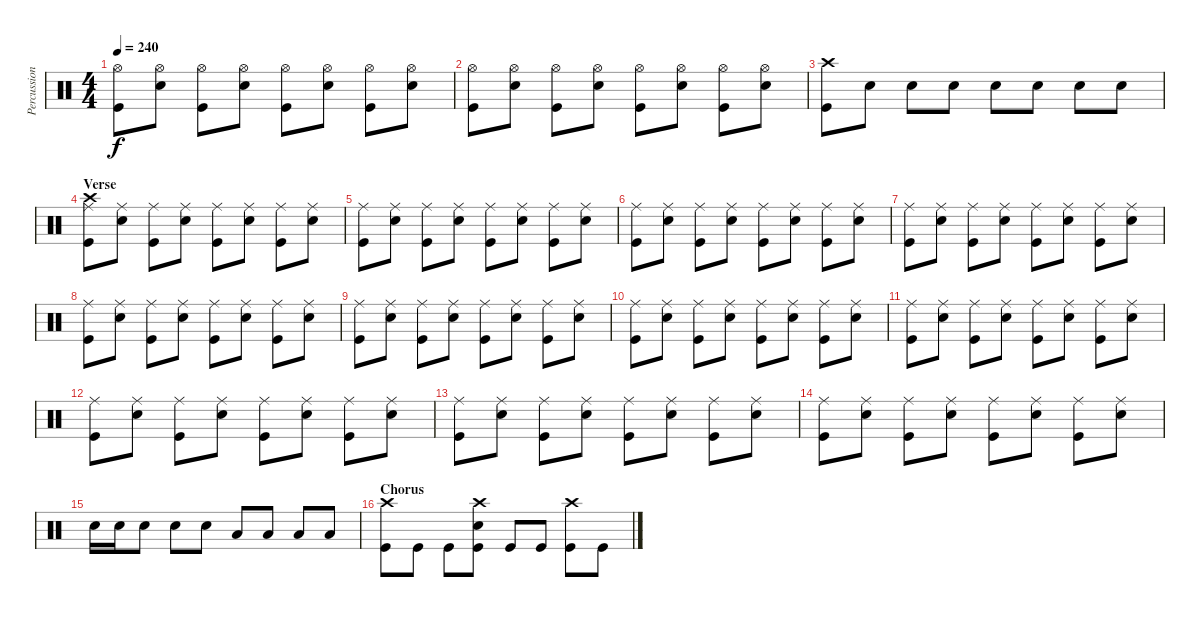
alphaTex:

\track ("Percussion" "Percussion") {instrument percussion}
\staff {score}
\articulation defaults
\ts (4 4)
\tempo 240
\clef neutral
\ks c
("Hi-Hat (open)" "Kick (hit)").8{dy f} ("Electric Snare (hit)" "Hi-Hat (open)").8 ("Hi-Hat (open)" "Kick (hit)").8 ("Electric Snare (hit)" "Hi-Hat (open)").8 ("Hi-Hat (open)" "Kick (hit)").8 ("Electric Snare (hit)" "Hi-Hat (open)").8 ("Hi-Hat (open)" "Kick (hit)").8 ("Electric Snare (hit)" "Hi-Hat (open)").8 |
("Hi-Hat (open)" "Kick (hit)").8 ("Electric Snare (hit)" "Hi-Hat (open)").8 ("Hi-Hat (open)" "Kick (hit)").8 ("Electric Snare (hit)" "Hi-Hat (open)").8 ("Hi-Hat (open)" "Kick (hit)").8 ("Electric Snare (hit)" "Hi-Hat (open)").8 ("Hi-Hat (open)" "Kick (hit)").8 ("Electric Snare (hit)" "Hi-Hat (open)").8 |
("Crash high (hit)" "Kick (hit)").8 "Electric Snare (hit)".8 "Electric Snare (hit)".8 "Electric Snare (hit)".8 "Electric Snare (hit)".8 "Electric Snare (hit)".8 "Electric Snare (hit)".8 "Electric Snare (hit)".8 |
\section ("" "Verse")
("Ride (middle)" "Crash high (hit)" "Kick (hit)").8 ("Electric Snare (hit)" "Ride (middle)").8 ("Ride (middle)" "Kick (hit)").8 ("Electric Snare (hit)" "Ride (middle)").8 ("Ride (middle)" "Kick (hit)").8 ("Electric Snare (hit)" "Ride (middle)").8 ("Ride (middle)" "Kick (hit)").8 ("Electric Snare (hit)" "Ride (middle)").8 |
("Ride (middle)" "Kick (hit)").8 ("Electric Snare (hit)" "Ride (middle)").8 ("Ride (middle)" "Kick (hit)").8 ("Electric Snare (hit)" "Ride (middle)").8 ("Ride (middle)" "Kick (hit)").8 ("Electric Snare (hit)" "Ride (middle)").8 ("Ride (middle)" "Kick (hit)").8 ("Electric Snare (hit)" "Ride (middle)").8 |
("Ride (middle)" "Kick (hit)").8 ("Electric Snare (hit)" "Ride (middle)").8 ("Ride (middle)" "Kick (hit)").8 ("Electric Snare (hit)" "Ride (middle)").8 ("Ride (middle)" "Kick (hit)").8 ("Electric Snare (hit)" "Ride (middle)").8 ("Ride (middle)" "Kick (hit)").8 ("Electric Snare (hit)" "Ride (middle)").8 |
("Ride (middle)" "Kick (hit)").8 ("Electric Snare (hit)" "Ride (middle)").8 ("Ride (middle)" "Kick (hit)").8 ("Electric Snare (hit)" "Ride (middle)").8 ("Ride (middle)" "Kick (hit)").8 ("Electric Snare (hit)" "Ride (middle)").8 ("Ride (middle)" "Kick (hit)").8 ("Electric Snare (hit)" "Ride (middle)").8 |
("Ride (middle)" "Kick (hit)").8 ("Electric Snare (hit)" "Ride (middle)").8 ("Ride (middle)" "Kick (hit)").8 ("Electric Snare (hit)" "Ride (middle)").8 ("Ride (middle)" "Kick (hit)").8 ("Electric Snare (hit)" "Ride (middle)").8 ("Ride (middle)" "Kick (hit)").8 ("Electric Snare (hit)" "Ride (middle)").8 |
("Ride (middle)" "Kick (hit)").8 ("Electric Snare (hit)" "Ride (middle)").8 ("Ride (middle)" "Kick (hit)").8 ("Electric Snare (hit)" "Ride (middle)").8 ("Ride (middle)" "Kick (hit)").8 ("Electric Snare (hit)" "Ride (middle)").8 ("Ride (middle)" "Kick (hit)").8 ("Electric Snare (hit)" "Ride (middle)").8 |
("Ride (middle)" "Kick (hit)").8 ("Electric Snare (hit)" "Ride (middle)").8 ("Ride (middle)" "Kick (hit)").8 ("Electric Snare (hit)" "Ride (middle)").8 ("Ride (middle)" "Kick (hit)").8 ("Electric Snare (hit)" "Ride (middle)").8 ("Ride (middle)" "Kick (hit)").8 ("Electric Snare (hit)" "Ride (middle)").8 |
("Ride (middle)" "Kick (hit)").8 ("Electric Snare (hit)" "Ride (middle)").8 ("Ride (middle)" "Kick (hit)").8 ("Electric Snare (hit)" "Ride (middle)").8 ("Ride (middle)" "Kick (hit)").8 ("Electric Snare (hit)" "Ride (middle)").8 ("Ride (middle)" "Kick (hit)").8 ("Electric Snare (hit)" "Ride (middle)").8 |
("Ride (middle)" "Kick (hit)").8 ("Electric Snare (hit)" "Ride (middle)").8 ("Ride (middle)" "Kick (hit)").8 ("Electric Snare (hit)" "Ride (middle)").8 ("Ride (middle)" "Kick (hit)").8 ("Electric Snare (hit)" "Ride (middle)").8 ("Ride (middle)" "Kick (hit)").8 ("Electric Snare (hit)" "Ride (middle)").8 |
("Ride (middle)" "Kick (hit)").8 ("Electric Snare (hit)" "Ride (middle)").8 ("Ride (middle)" "Kick (hit)").8 ("Electric Snare (hit)" "Ride (middle)").8 ("Ride (middle)" "Kick (hit)").8 ("Electric Snare (hit)" "Ride (middle)").8 ("Ride (middle)" "Kick (hit)").8 ("Electric Snare (hit)" "Ride (middle)").8 |
("Ride (middle)" "Kick (hit)").8 ("Electric Snare (hit)" "Ride (middle)").8 ("Ride (middle)" "Kick (hit)").8 ("Electric Snare (hit)" "Ride (middle)").8 ("Ride (middle)" "Kick (hit)").8 ("Electric Snare (hit)" "Ride (middle)").8 ("Ride (middle)" "Kick (hit)").8 ("Electric Snare (hit)" "Ride (middle)").8 |
"Electric Snare (hit)".16 "Electric Snare (hit)".16 "Electric Snare (hit)".8 "Electric Snare (hit)".8 "Electric Snare (hit)".8 "Low Tom (hit)".8 "Low Tom (hit)".8 "Low Tom (hit)".8 "Low Floor Tom (hit)".8 |
\section ("" "Chorus")
("Crash high (hit)" "Kick (hit)").8 "Kick (hit)".8 "Kick (hit)".8 ("Electric Snare (hit)" "Crash high (hit)" "Kick (hit)").8 "Kick (hit)".8 "Kick (hit)".8 ("Crash high (hit)" "Kick (hit)").8 "Kick (hit)".8
